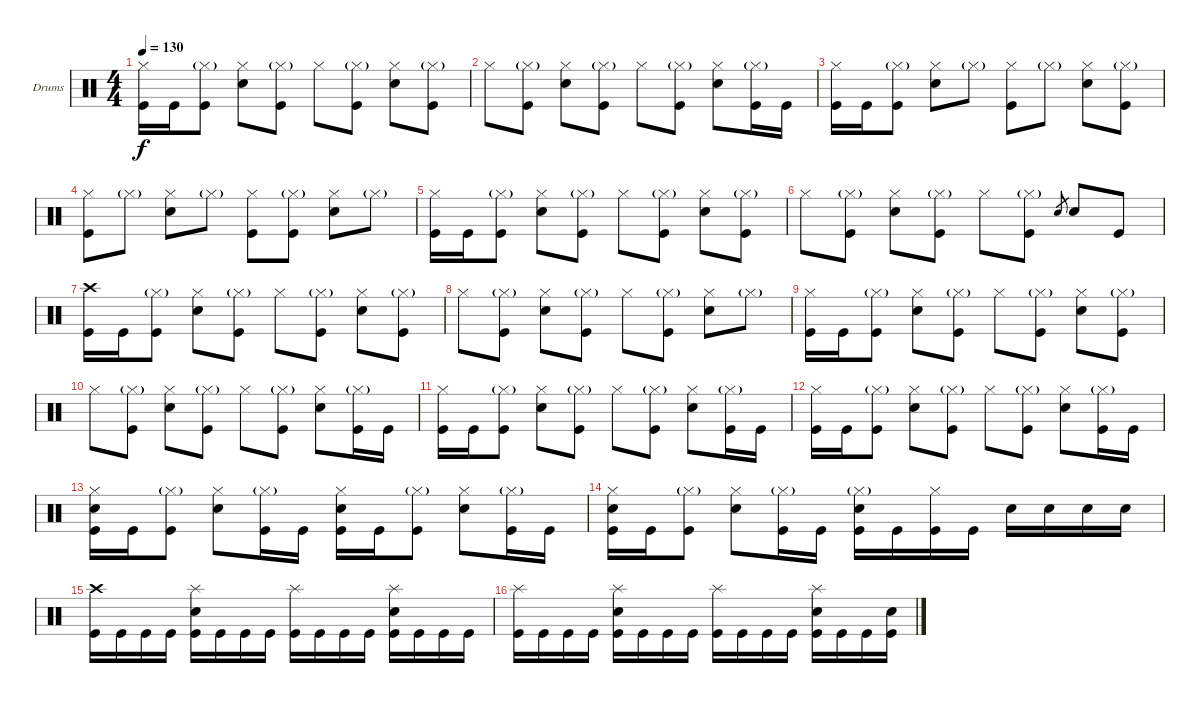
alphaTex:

\bracketExtendMode groupsimilarinstruments
\firstSystemTrackNameOrientation horizontal
\otherSystemsTrackNameOrientation horizontal
\track ("Drumkit" "Drums") {instrument percussion}
\staff {score}
\articulation defaults
\ts (4 4)
\tempo 130
\clef neutral
\ks c
("Kick (hit)" "Hi-Hat (closed)").16{dy f} "Kick (hit)".16 ("Kick (hit)" "Hi-Hat (closed)"{g}).8 ("Snare (hit) 2" "Hi-Hat (closed)").8 ("Kick (hit)" "Hi-Hat (closed)"{g}).8 "Hi-Hat (closed)".8 ("Kick (hit)" "Hi-Hat (closed)"{g}).8 ("Snare (hit) 2" "Hi-Hat (closed)").8 ("Kick (hit)" "Hi-Hat (closed)"{g}).8 |
"Hi-Hat (closed)".8 ("Kick (hit)" "Hi-Hat (closed)"{g}).8 ("Snare (hit) 2" "Hi-Hat (closed)").8 ("Kick (hit)" "Hi-Hat (closed)"{g}).8 "Hi-Hat (closed)".8 ("Kick (hit)" "Hi-Hat (closed)"{g}).8 ("Snare (hit) 2" "Hi-Hat (closed)").8 ("Hi-Hat (closed)"{g} "Kick (hit)").16 "Kick (hit)".16 |
("Kick (hit)" "Hi-Hat (closed)").16 "Kick (hit)".16 ("Kick (hit)" "Hi-Hat (closed)"{g}).8 ("Snare (hit) 2" "Hi-Hat (closed)").8 "Hi-Hat (closed)"{g}.8 ("Hi-Hat (closed)" "Kick (hit)").8 "Hi-Hat (closed)"{g}.8 ("Snare (hit) 2" "Hi-Hat (closed)").8 ("Hi-Hat (closed)"{g} "Kick (hit)").8 |
("Hi-Hat (closed)" "Kick (hit)").8 "Hi-Hat (closed)"{g}.8 ("Snare (hit) 2" "Hi-Hat (closed)").8 "Hi-Hat (closed)"{g}.8 ("Hi-Hat (closed)" "Kick (hit)").8 ("Kick (hit)" "Hi-Hat (closed)"{g}).8 ("Snare (hit) 2" "Hi-Hat (closed)").8 "Hi-Hat (closed)"{g}.8 |
("Kick (hit)" "Hi-Hat (closed)").16 "Kick (hit)".16 ("Kick (hit)" "Hi-Hat (closed)"{g}).8 ("Snare (hit) 2" "Hi-Hat (closed)").8 ("Kick (hit)" "Hi-Hat (closed)"{g}).8 "Hi-Hat (closed)".8 ("Kick (hit)" "Hi-Hat (closed)"{g}).8 ("Snare (hit) 2" "Hi-Hat (closed)").8 ("Kick (hit)" "Hi-Hat (closed)"{g}).8 |
"Hi-Hat (closed)".8 ("Kick (hit)" "Hi-Hat (closed)"{g}).8 ("Snare (hit) 2" "Hi-Hat (closed)").8 ("Kick (hit)" "Hi-Hat (closed)"{g}).8 "Hi-Hat (closed)".8 ("Kick (hit)" "Hi-Hat (closed)"{g}).8 "Snare (hit) 2".8{gr} "Snare (hit) 2".8 "Kick (hit)".8 |
("Crash high (hit)" "Kick (hit)").16 "Kick (hit)".16 ("Kick (hit)" "Hi-Hat (closed)"{g}).8 ("Snare (hit) 2" "Hi-Hat (closed)").8 ("Hi-Hat (closed)"{g} "Kick (hit)").8 "Hi-Hat (closed)".8 ("Hi-Hat (closed)"{g} "Kick (hit)").8 ("Snare (hit) 2" "Hi-Hat (closed)").8 ("Hi-Hat (closed)"{g} "Kick (hit)").8 |
"Hi-Hat (closed)".8 ("Hi-Hat (closed)"{g} "Kick (hit)").8 ("Snare (hit) 2" "Hi-Hat (closed)").8 ("Hi-Hat (closed)"{g} "Kick (hit)").8 "Hi-Hat (closed)".8 ("Kick (hit)" "Hi-Hat (closed)"{g}).8 ("Snare (hit) 2" "Hi-Hat (closed)").8 "Hi-Hat (closed)"{g}.8 |
("Kick (hit)" "Hi-Hat (closed)").16 "Kick (hit)".16 ("Kick (hit)" "Hi-Hat (closed)"{g}).8 ("Snare (hit) 2" "Hi-Hat (closed)").8 ("Kick (hit)" "Hi-Hat (closed)"{g}).8 "Hi-Hat (closed)".8 ("Kick (hit)" "Hi-Hat (closed)"{g}).8 ("Snare (hit) 2" "Hi-Hat (closed)").8 ("Kick (hit)" "Hi-Hat (closed)"{g}).8 |
"Hi-Hat (closed)".8 ("Kick (hit)" "Hi-Hat (closed)"{g}).8 ("Snare (hit) 2" "Hi-Hat (closed)").8 ("Kick (hit)" "Hi-Hat (closed)"{g}).8 "Hi-Hat (closed)".8 ("Kick (hit)" "Hi-Hat (closed)"{g}).8 ("Snare (hit) 2" "Hi-Hat (closed)").8 ("Hi-Hat (closed)"{g} "Kick (hit)").16 "Kick (hit)".16 |
("Kick (hit)" "Hi-Hat (closed)").16 "Kick (hit)".16 ("Kick (hit)" "Hi-Hat (closed)"{g}).8 ("Snare (hit) 2" "Hi-Hat (closed)").8 ("Hi-Hat (closed)"{g} "Kick (hit)").8 "Hi-Hat (closed)".8 ("Hi-Hat (closed)"{g} "Kick (hit)").8 ("Snare (hit) 2" "Hi-Hat (closed)").8 ("Hi-Hat (closed)"{g} "Kick (hit)").16 "Kick (hit)".16 |
("Hi-Hat (closed)" "Kick (hit)").16 "Kick (hit)".16 ("Hi-Hat (closed)"{g} "Kick (hit)").8 ("Snare (hit) 2" "Hi-Hat (closed)").8 ("Hi-Hat (closed)"{g} "Kick (hit)").8 "Hi-Hat (closed)".8 ("Kick (hit)" "Hi-Hat (closed)"{g}).8 ("Snare (hit) 2" "Hi-Hat (closed)").8 ("Hi-Hat (closed)"{g} "Kick (hit)").16 "Kick (hit)".16 |
("Kick (hit)" "Hi-Hat (closed)" "Snare (hit) 2").16 "Kick (hit)".16 ("Kick (hit)" "Hi-Hat (closed)"{g}).8 ("Snare (hit) 2" "Hi-Hat (closed)").8 ("Kick (hit)" "Hi-Hat (closed)"{g}).16 "Kick (hit)".16 ("Hi-Hat (closed)" "Kick (hit)" "Snare (hit) 2").16 "Kick (hit)".16 ("Kick (hit)" "Hi-Hat (closed)"{g}).8 ("Snare (hit) 2" "Hi-Hat (closed)").8 ("Kick (hit)" "Hi-Hat (closed)"{g}).16 "Kick (hit)".16 |
("Hi-Hat (closed)" "Kick (hit)" "Snare (hit) 2").16 "Kick (hit)".16 ("Kick (hit)" "Hi-Hat (closed)"{g}).8 ("Snare (hit) 2" "Hi-Hat (closed)").8 ("Kick (hit)" "Hi-Hat (closed)"{g}).16 "Kick (hit)".16 ("Kick (hit)" "Hi-Hat (closed)"{g} "Snare (hit) 2").16 "Kick (hit)".16 ("Kick (hit)" "Hi-Hat (closed)").16 "Kick (hit)".16 "Snare (hit) 2".16 "Snare (hit) 2".16 "Snare (hit) 2".16 "Snare (hit) 2".16 |
("Kick (hit)" "Crash high (hit)").16 "Kick (hit)".16 "Kick (hit)".16 "Kick (hit)".16 ("Kick (hit)" "Snare (hit) 2" "Splash (hit)").16 "Kick (hit)".16 "Kick (hit)".16 "Kick (hit)".16 ("Kick (hit)" "Splash (hit)").16 "Kick (hit)".16 "Kick (hit)".16 "Kick (hit)".16 ("Kick (hit)" "Snare (hit) 2" "Splash (hit)").16 "Kick (hit)".16 "Kick (hit)".16 "Kick (hit)".16 |
("Kick (hit)" "Splash (hit)").16 "Kick (hit)".16 "Kick (hit)".16 "Kick (hit)".16 ("Kick (hit)" "Snare (hit) 2" "Splash (hit)").16 "Kick (hit)".16 "Kick (hit)".16 "Kick (hit)".16 ("Kick (hit)" "Splash (hit)").16 "Kick (hit)".16 "Kick (hit)".16 "Kick (hit)".16 ("Kick (hit)" "Snare (hit) 2" "Splash (hit)").16 "Kick (hit)".16 "Kick (hit)".16 ("Kick (hit)" "Snare (hit) 2").16
